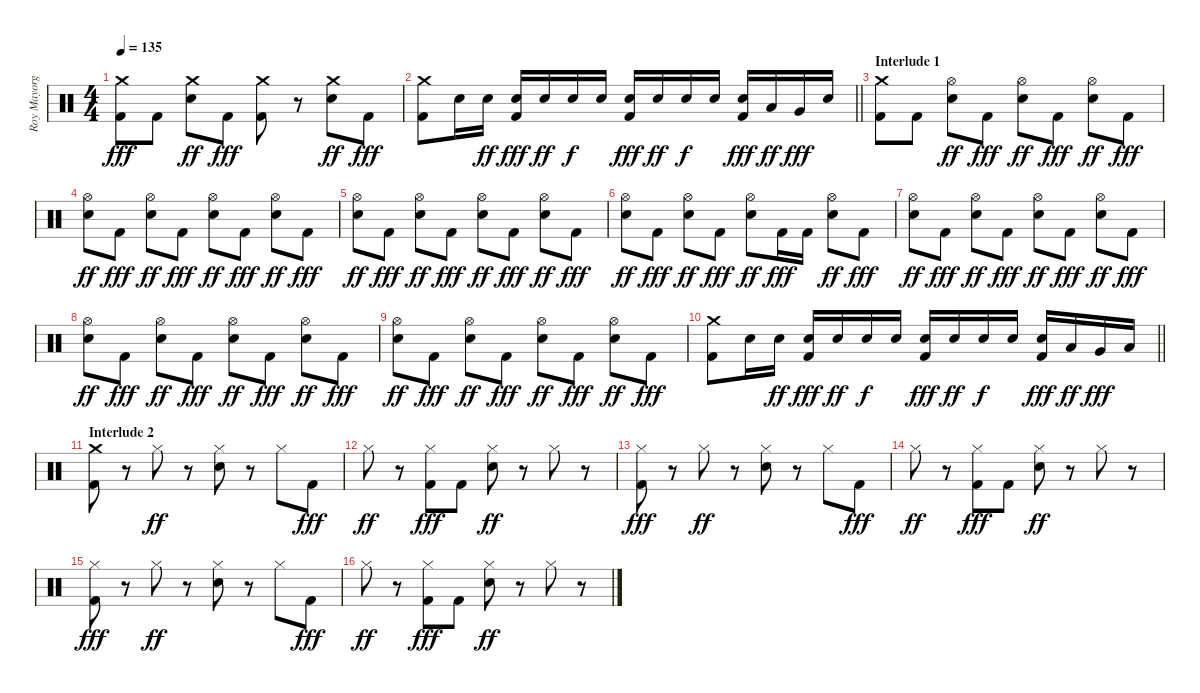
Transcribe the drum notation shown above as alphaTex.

\track ("Roy Mayorga" "Roy Mayorg") {instrument percussion}
\staff {score}
\articulation defaults
\ts (4 4)
\tempo 135
\clef neutral
\ks c
("Crash medium (hit)" "Kick (hit) 2").8{dy fff} "Kick (hit) 2".8 ("Crash medium (hit)" "Electric Snare (hit)").8{dy ff} "Kick (hit) 2".8{dy fff} ("Crash medium (hit)" "Kick (hit) 2").8 r.8 ("Crash medium (hit)" "Electric Snare (hit)").8{dy ff} "Kick (hit) 2".8{dy fff} |
\barLineRight lightlight
("Crash medium (hit)" "Kick (hit) 2").8 "Electric Snare (hit)".16 "Electric Snare (hit)".16{dy ff} ("Electric Snare (hit)" "Kick (hit) 2").16{dy fff} "Electric Snare (hit)".16{dy ff} "Electric Snare (hit)".16{dy f} "Electric Snare (hit)".16 ("Electric Snare (hit)" "Kick (hit) 2").16{dy fff} "Electric Snare (hit)".16{dy ff} "Electric Snare (hit)".16{dy f} "Electric Snare (hit)".16 ("Electric Snare (hit)" "Kick (hit) 2").16{dy fff} "Low Tom (hit)".16{dy ff} "Very Low Tom (hit)".16{dy fff} "Electric Snare (hit)".16 |
\section ("" "Interlude 1")
("Crash medium (hit)" "Kick (hit) 2").8 "Kick (hit) 2".8 ("Hi-Hat (open)" "Electric Snare (hit)").8{dy ff} "Kick (hit) 2".8{dy fff} ("Hi-Hat (open)" "Electric Snare (hit)").8{dy ff} "Kick (hit) 2".8{dy fff} ("Hi-Hat (open)" "Electric Snare (hit)").8{dy ff} "Kick (hit) 2".8{dy fff} |
("Hi-Hat (open)" "Electric Snare (hit)").8{dy ff} "Kick (hit) 2".8{dy fff} ("Hi-Hat (open)" "Electric Snare (hit)").8{dy ff} "Kick (hit) 2".8{dy fff} ("Hi-Hat (open)" "Electric Snare (hit)").8{dy ff} "Kick (hit) 2".8{dy fff} ("Hi-Hat (open)" "Electric Snare (hit)").8{dy ff} "Kick (hit) 2".8{dy fff} |
("Hi-Hat (open)" "Electric Snare (hit)").8{dy ff} "Kick (hit) 2".8{dy fff} ("Hi-Hat (open)" "Electric Snare (hit)").8{dy ff} "Kick (hit) 2".8{dy fff} ("Hi-Hat (open)" "Electric Snare (hit)").8{dy ff} "Kick (hit) 2".8{dy fff} ("Hi-Hat (open)" "Electric Snare (hit)").8{dy ff} "Kick (hit) 2".8{dy fff} |
("Hi-Hat (open)" "Electric Snare (hit)").8{dy ff} "Kick (hit) 2".8{dy fff} ("Hi-Hat (open)" "Electric Snare (hit)").8{dy ff} "Kick (hit) 2".8{dy fff} ("Hi-Hat (open)" "Electric Snare (hit)").8{dy ff} "Kick (hit) 2".16{dy fff} "Kick (hit) 2".16 ("Hi-Hat (open)" "Electric Snare (hit)").8{dy ff} "Kick (hit) 2".8{dy fff} |
("Hi-Hat (open)" "Electric Snare (hit)").8{dy ff} "Kick (hit) 2".8{dy fff} ("Hi-Hat (open)" "Electric Snare (hit)").8{dy ff} "Kick (hit) 2".8{dy fff} ("Hi-Hat (open)" "Electric Snare (hit)").8{dy ff} "Kick (hit) 2".8{dy fff} ("Hi-Hat (open)" "Electric Snare (hit)").8{dy ff} "Kick (hit) 2".8{dy fff} |
("Hi-Hat (open)" "Electric Snare (hit)").8{dy ff} "Kick (hit) 2".8{dy fff} ("Hi-Hat (open)" "Electric Snare (hit)").8{dy ff} "Kick (hit) 2".8{dy fff} ("Hi-Hat (open)" "Electric Snare (hit)").8{dy ff} "Kick (hit) 2".8{dy fff} ("Hi-Hat (open)" "Electric Snare (hit)").8{dy ff} "Kick (hit) 2".8{dy fff} |
("Hi-Hat (open)" "Electric Snare (hit)").8{dy ff} "Kick (hit) 2".8{dy fff} ("Hi-Hat (open)" "Electric Snare (hit)").8{dy ff} "Kick (hit) 2".8{dy fff} ("Hi-Hat (open)" "Electric Snare (hit)").8{dy ff} "Kick (hit) 2".8{dy fff} ("Hi-Hat (open)" "Electric Snare (hit)").8{dy ff} "Kick (hit) 2".8{dy fff} |
\barLineRight lightlight
("Crash medium (hit)" "Kick (hit) 2").8 "Electric Snare (hit)".16 "Electric Snare (hit)".16{dy ff} ("Electric Snare (hit)" "Kick (hit) 2").16{dy fff} "Electric Snare (hit)".16{dy ff} "Electric Snare (hit)".16{dy f} "Electric Snare (hit)".16 ("Electric Snare (hit)" "Kick (hit) 2").16{dy fff} "Electric Snare (hit)".16{dy ff} "Electric Snare (hit)".16{dy f} "Electric Snare (hit)".16 ("Electric Snare (hit)" "Kick (hit) 2").16{dy fff} "Low Tom (hit)".16{dy ff} "Very Low Tom (hit)".16{dy fff} "Low Floor Tom (hit)".16 |
\section ("" "Interlude 2")
("Crash medium (hit)" "Kick (hit) 2").8 r.8 "Hi-Hat (closed)".8{dy ff} r.8 ("Hi-Hat (closed)" "Electric Snare (hit)").8 r.8 "Hi-Hat (closed)".8 "Kick (hit) 2".8{dy fff} |
"Hi-Hat (closed)".8{dy ff} r.8 ("Hi-Hat (closed)" "Kick (hit) 2").8{dy fff} "Kick (hit) 2".8 ("Hi-Hat (closed)" "Electric Snare (hit)").8{dy ff} r.8 "Hi-Hat (closed)".8 r.8 |
("Hi-Hat (closed)" "Kick (hit) 2").8{dy fff} r.8 "Hi-Hat (closed)".8{dy ff} r.8 ("Hi-Hat (closed)" "Electric Snare (hit)").8 r.8 "Hi-Hat (closed)".8 "Kick (hit) 2".8{dy fff} |
"Hi-Hat (closed)".8{dy ff} r.8 ("Hi-Hat (closed)" "Kick (hit) 2").8{dy fff} "Kick (hit) 2".8 ("Hi-Hat (closed)" "Electric Snare (hit)").8{dy ff} r.8 "Hi-Hat (closed)".8 r.8 |
("Hi-Hat (closed)" "Kick (hit) 2").8{dy fff} r.8 "Hi-Hat (closed)".8{dy ff} r.8 ("Hi-Hat (closed)" "Electric Snare (hit)").8 r.8 "Hi-Hat (closed)".8 "Kick (hit) 2".8{dy fff} |
"Hi-Hat (closed)".8{dy ff} r.8 ("Hi-Hat (closed)" "Kick (hit) 2").8{dy fff} "Kick (hit) 2".8 ("Hi-Hat (closed)" "Electric Snare (hit)").8{dy ff} r.8 "Hi-Hat (closed)".8 r.8
